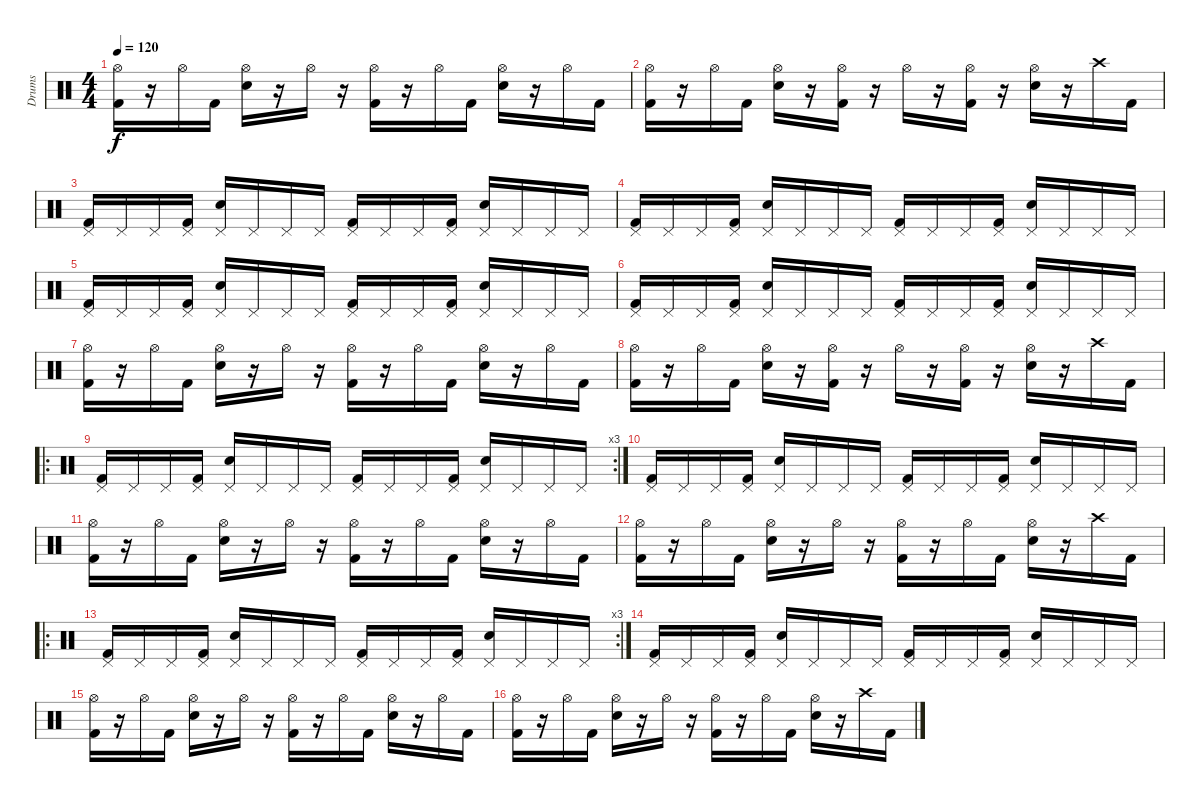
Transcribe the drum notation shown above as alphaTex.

\track ("Drums" "Drums") {instrument percussion}
\staff {score}
\articulation defaults
\ts (4 4)
\tempo 120
\clef neutral
\ks c
("Hi-Hat (open)" "Kick (hit) 2").16{dy f} r.16 "Hi-Hat (open)".16 "Kick (hit) 2".16 ("Hi-Hat (open)" "Electric Snare (hit)").16 r.16 "Hi-Hat (open)".16 r.16 ("Hi-Hat (open)" "Kick (hit) 2").16 r.16 "Hi-Hat (open)".16 "Kick (hit) 2".16 ("Hi-Hat (open)" "Electric Snare (hit)").16 r.16 "Hi-Hat (open)".16 "Kick (hit) 2".16 |
("Hi-Hat (open)" "Kick (hit) 2").16 r.16 "Hi-Hat (open)".16 "Kick (hit) 2".16 ("Hi-Hat (open)" "Electric Snare (hit)").16 r.16 ("Hi-Hat (open)" "Kick (hit) 2").16 r.16 "Hi-Hat (open)".16 r.16 ("Hi-Hat (open)" "Kick (hit) 2").16 r.16 ("Hi-Hat (open)" "Electric Snare (hit)").16 r.16 "Crash high (hit)".16 "Kick (hit) 2".16 |
("Pedal Hi-Hat (hit)" "Kick (hit) 2").16 "Pedal Hi-Hat (hit)".16 "Pedal Hi-Hat (hit)".16 ("Pedal Hi-Hat (hit)" "Kick (hit) 2").16 ("Pedal Hi-Hat (hit)" "Electric Snare (hit)").16 "Pedal Hi-Hat (hit)".16 "Pedal Hi-Hat (hit)".16 "Pedal Hi-Hat (hit)".16 ("Pedal Hi-Hat (hit)" "Kick (hit) 2").16 "Pedal Hi-Hat (hit)".16 "Pedal Hi-Hat (hit)".16 ("Pedal Hi-Hat (hit)" "Kick (hit) 2").16 ("Pedal Hi-Hat (hit)" "Electric Snare (hit)").16 "Pedal Hi-Hat (hit)".16 "Pedal Hi-Hat (hit)".16 "Pedal Hi-Hat (hit)".16 |
("Pedal Hi-Hat (hit)" "Kick (hit) 2").16 "Pedal Hi-Hat (hit)".16 "Pedal Hi-Hat (hit)".16 ("Pedal Hi-Hat (hit)" "Kick (hit) 2").16 ("Pedal Hi-Hat (hit)" "Electric Snare (hit)").16 "Pedal Hi-Hat (hit)".16 "Pedal Hi-Hat (hit)".16 "Pedal Hi-Hat (hit)".16 ("Pedal Hi-Hat (hit)" "Kick (hit) 2").16 "Pedal Hi-Hat (hit)".16 "Pedal Hi-Hat (hit)".16 ("Pedal Hi-Hat (hit)" "Kick (hit) 2").16 ("Pedal Hi-Hat (hit)" "Electric Snare (hit)").16 "Pedal Hi-Hat (hit)".16 "Pedal Hi-Hat (hit)".16 "Pedal Hi-Hat (hit)".16 |
("Pedal Hi-Hat (hit)" "Kick (hit) 2").16 "Pedal Hi-Hat (hit)".16 "Pedal Hi-Hat (hit)".16 ("Pedal Hi-Hat (hit)" "Kick (hit) 2").16 ("Pedal Hi-Hat (hit)" "Electric Snare (hit)").16 "Pedal Hi-Hat (hit)".16 "Pedal Hi-Hat (hit)".16 "Pedal Hi-Hat (hit)".16 ("Pedal Hi-Hat (hit)" "Kick (hit) 2").16 "Pedal Hi-Hat (hit)".16 "Pedal Hi-Hat (hit)".16 ("Pedal Hi-Hat (hit)" "Kick (hit) 2").16 ("Pedal Hi-Hat (hit)" "Electric Snare (hit)").16 "Pedal Hi-Hat (hit)".16 "Pedal Hi-Hat (hit)".16 "Pedal Hi-Hat (hit)".16 |
("Pedal Hi-Hat (hit)" "Kick (hit) 2").16 "Pedal Hi-Hat (hit)".16 "Pedal Hi-Hat (hit)".16 ("Pedal Hi-Hat (hit)" "Kick (hit) 2").16 ("Pedal Hi-Hat (hit)" "Electric Snare (hit)").16 "Pedal Hi-Hat (hit)".16 "Pedal Hi-Hat (hit)".16 "Pedal Hi-Hat (hit)".16 ("Pedal Hi-Hat (hit)" "Kick (hit) 2").16 "Pedal Hi-Hat (hit)".16 "Pedal Hi-Hat (hit)".16 ("Pedal Hi-Hat (hit)" "Kick (hit) 2").16 ("Pedal Hi-Hat (hit)" "Electric Snare (hit)").16 "Pedal Hi-Hat (hit)".16 "Pedal Hi-Hat (hit)".16 "Pedal Hi-Hat (hit)".16 |
("Hi-Hat (open)" "Kick (hit) 2").16 r.16 "Hi-Hat (open)".16 "Kick (hit) 2".16 ("Hi-Hat (open)" "Electric Snare (hit)").16 r.16 "Hi-Hat (open)".16 r.16 ("Hi-Hat (open)" "Kick (hit) 2").16 r.16 "Hi-Hat (open)".16 "Kick (hit) 2".16 ("Hi-Hat (open)" "Electric Snare (hit)").16 r.16 "Hi-Hat (open)".16 "Kick (hit) 2".16 |
("Hi-Hat (open)" "Kick (hit) 2").16 r.16 "Hi-Hat (open)".16 "Kick (hit) 2".16 ("Hi-Hat (open)" "Electric Snare (hit)").16 r.16 ("Hi-Hat (open)" "Kick (hit) 2").16 r.16 "Hi-Hat (open)".16 r.16 ("Hi-Hat (open)" "Kick (hit) 2").16 r.16 ("Hi-Hat (open)" "Electric Snare (hit)").16 r.16 "Crash high (hit)".16 "Kick (hit) 2".16 |
\ro
\rc 3
("Pedal Hi-Hat (hit)" "Kick (hit) 2").16 "Pedal Hi-Hat (hit)".16 "Pedal Hi-Hat (hit)".16 ("Pedal Hi-Hat (hit)" "Kick (hit) 2").16 ("Pedal Hi-Hat (hit)" "Electric Snare (hit)").16 "Pedal Hi-Hat (hit)".16 "Pedal Hi-Hat (hit)".16 "Pedal Hi-Hat (hit)".16 ("Pedal Hi-Hat (hit)" "Kick (hit) 2").16 "Pedal Hi-Hat (hit)".16 "Pedal Hi-Hat (hit)".16 ("Pedal Hi-Hat (hit)" "Kick (hit) 2").16 ("Pedal Hi-Hat (hit)" "Electric Snare (hit)").16 "Pedal Hi-Hat (hit)".16 "Pedal Hi-Hat (hit)".16 "Pedal Hi-Hat (hit)".16 |
("Pedal Hi-Hat (hit)" "Kick (hit) 2").16 "Pedal Hi-Hat (hit)".16 "Pedal Hi-Hat (hit)".16 ("Pedal Hi-Hat (hit)" "Kick (hit) 2").16 ("Pedal Hi-Hat (hit)" "Electric Snare (hit)").16 "Pedal Hi-Hat (hit)".16 "Pedal Hi-Hat (hit)".16 "Pedal Hi-Hat (hit)".16 ("Pedal Hi-Hat (hit)" "Kick (hit) 2").16 "Pedal Hi-Hat (hit)".16 "Pedal Hi-Hat (hit)".16 ("Pedal Hi-Hat (hit)" "Kick (hit) 2").16 ("Pedal Hi-Hat (hit)" "Electric Snare (hit)").16 "Pedal Hi-Hat (hit)".16 "Pedal Hi-Hat (hit)".16 "Pedal Hi-Hat (hit)".16 |
("Hi-Hat (open)" "Kick (hit) 2").16 r.16 "Hi-Hat (open)".16 "Kick (hit) 2".16 ("Hi-Hat (open)" "Electric Snare (hit)").16 r.16 "Hi-Hat (open)".16 r.16 ("Hi-Hat (open)" "Kick (hit) 2").16 r.16 "Hi-Hat (open)".16 "Kick (hit) 2".16 ("Hi-Hat (open)" "Electric Snare (hit)").16 r.16 "Hi-Hat (open)".16 "Kick (hit) 2".16 |
("Hi-Hat (open)" "Kick (hit) 2").16 r.16 "Hi-Hat (open)".16 "Kick (hit) 2".16 ("Hi-Hat (open)" "Electric Snare (hit)").16 r.16 "Hi-Hat (open)".16 r.16 ("Hi-Hat (open)" "Kick (hit) 2").16 r.16 "Hi-Hat (open)".16 "Kick (hit) 2".16 ("Hi-Hat (open)" "Electric Snare (hit)").16 r.16 "Crash high (hit)".16 "Kick (hit) 2".16 |
\ro
\rc 3
("Pedal Hi-Hat (hit)" "Kick (hit) 2").16 "Pedal Hi-Hat (hit)".16 "Pedal Hi-Hat (hit)".16 ("Pedal Hi-Hat (hit)" "Kick (hit) 2").16 ("Pedal Hi-Hat (hit)" "Electric Snare (hit)").16 "Pedal Hi-Hat (hit)".16 "Pedal Hi-Hat (hit)".16 "Pedal Hi-Hat (hit)".16 ("Pedal Hi-Hat (hit)" "Kick (hit) 2").16 "Pedal Hi-Hat (hit)".16 "Pedal Hi-Hat (hit)".16 ("Pedal Hi-Hat (hit)" "Kick (hit) 2").16 ("Pedal Hi-Hat (hit)" "Electric Snare (hit)").16 "Pedal Hi-Hat (hit)".16 "Pedal Hi-Hat (hit)".16 "Pedal Hi-Hat (hit)".16 |
("Pedal Hi-Hat (hit)" "Kick (hit) 2").16 "Pedal Hi-Hat (hit)".16 "Pedal Hi-Hat (hit)".16 ("Pedal Hi-Hat (hit)" "Kick (hit) 2").16 ("Pedal Hi-Hat (hit)" "Electric Snare (hit)").16 "Pedal Hi-Hat (hit)".16 "Pedal Hi-Hat (hit)".16 "Pedal Hi-Hat (hit)".16 ("Pedal Hi-Hat (hit)" "Kick (hit) 2").16 "Pedal Hi-Hat (hit)".16 "Pedal Hi-Hat (hit)".16 ("Pedal Hi-Hat (hit)" "Kick (hit) 2").16 ("Pedal Hi-Hat (hit)" "Electric Snare (hit)").16 "Pedal Hi-Hat (hit)".16 "Pedal Hi-Hat (hit)".16 "Pedal Hi-Hat (hit)".16 |
("Hi-Hat (open)" "Kick (hit) 2").16 r.16 "Hi-Hat (open)".16 "Kick (hit) 2".16 ("Hi-Hat (open)" "Electric Snare (hit)").16 r.16 "Hi-Hat (open)".16 r.16 ("Hi-Hat (open)" "Kick (hit) 2").16 r.16 "Hi-Hat (open)".16 "Kick (hit) 2".16 ("Hi-Hat (open)" "Electric Snare (hit)").16 r.16 "Hi-Hat (open)".16 "Kick (hit) 2".16 |
("Hi-Hat (open)" "Kick (hit) 2").16 r.16 "Hi-Hat (open)".16 "Kick (hit) 2".16 ("Hi-Hat (open)" "Electric Snare (hit)").16 r.16 "Hi-Hat (open)".16 r.16 ("Hi-Hat (open)" "Kick (hit) 2").16 r.16 "Hi-Hat (open)".16 "Kick (hit) 2".16 ("Hi-Hat (open)" "Electric Snare (hit)").16 r.16 "Crash high (hit)".16 "Kick (hit) 2".16
